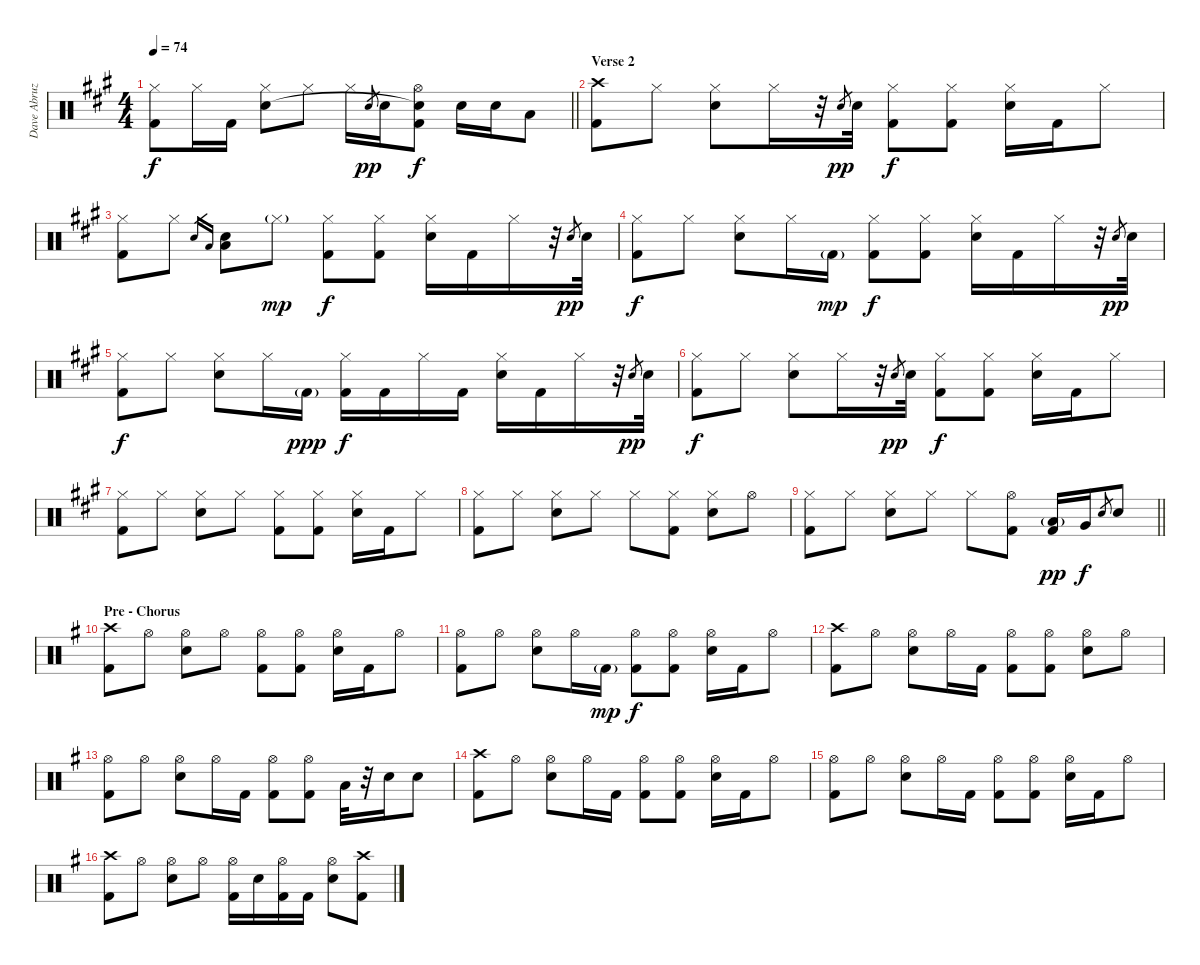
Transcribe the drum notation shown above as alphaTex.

\track ("Dave Abruzzese" "Dave Abruz") {instrument percussion}
\staff {score}
\articulation defaults
\ts (4 4)
\tempo 74
\clef neutral
\barLineRight lightlight
\ks a
("Hi-Hat (closed)" "Kick (hit) 2").8{dy f} "Hi-Hat (closed)".16 "Kick (hit) 2".16 ("Hi-Hat (closed)" "Electric Snare (hit)").8 "Hi-Hat (closed)".8 "Hi-Hat (closed)".16 "Electric Snare (hit)".8{gr dy pp} "Electric Snare (hit)".16 ("Hi-Hat (open)" "Snare (hit)"{t} "Kick (hit) 2").8{dy f} "Electric Snare (hit)".16 "Electric Snare (hit)".16 "Low Tom (hit)".8 |
\section ("" "Verse 2")
("Crash high (hit)" "Kick (hit) 2").8 "Hi-Hat (closed)".8 ("Hi-Hat (closed)" "Electric Snare (hit)").8 "Hi-Hat (closed)".16 r.32 "Electric Snare (hit)".8{gr dy pp} "Electric Snare (hit)".32 ("Hi-Hat (closed)" "Kick (hit) 2").8{dy f} ("Hi-Hat (closed)" "Kick (hit) 2").8 ("Hi-Hat (closed)" "Electric Snare (hit)").16 "Kick (hit) 2".16 "Hi-Hat (closed)".8 |
("Hi-Hat (closed)" "Kick (hit) 2").8 "Hi-Hat (closed)".8 "Electric Snare (hit)".16{gr} "Low Floor Tom (hit)".16{gr} ("Electric Snare (hit)" "Low Floor Tom (hit)").8 "Hi-Hat (closed)"{g}.8{dy mp} ("Hi-Hat (closed)" "Kick (hit) 2").8{dy f} ("Hi-Hat (closed)" "Kick (hit) 2").8 ("Hi-Hat (closed)" "Electric Snare (hit)").16 "Kick (hit) 2".16 "Hi-Hat (closed)".16 r.32 "Electric Snare (hit)".8{gr dy pp} "Electric Snare (hit)".32 |
("Hi-Hat (closed)" "Kick (hit) 2").8{dy f} "Hi-Hat (closed)".8 ("Hi-Hat (closed)" "Electric Snare (hit)").8 "Hi-Hat (closed)".16 "Kick (hit) 2"{g}.16{dy mp} ("Hi-Hat (closed)" "Kick (hit) 2").8{dy f} ("Hi-Hat (closed)" "Kick (hit) 2").8 ("Hi-Hat (closed)" "Electric Snare (hit)").16 "Kick (hit) 2".16 "Hi-Hat (closed)".16 r.32 "Electric Snare (hit)".8{gr dy pp} "Electric Snare (hit)".32 |
("Hi-Hat (closed)" "Kick (hit) 2").8{dy f} "Hi-Hat (closed)".8 ("Hi-Hat (closed)" "Electric Snare (hit)").8 "Hi-Hat (closed)".16 "Kick (hit) 2"{g}.16{dy ppp} ("Hi-Hat (closed)" "Kick (hit) 2").16{dy f} "Kick (hit) 2".16 "Hi-Hat (closed)".16 "Kick (hit) 2".16 ("Hi-Hat (closed)" "Electric Snare (hit)").16 "Kick (hit) 2".16 "Hi-Hat (closed)".16 r.32 "Electric Snare (hit)".8{gr dy pp} "Electric Snare (hit)".32 |
("Hi-Hat (closed)" "Kick (hit) 2").8{dy f} "Hi-Hat (closed)".8 ("Hi-Hat (closed)" "Electric Snare (hit)").8 "Hi-Hat (closed)".16 r.32 "Electric Snare (hit)".8{gr dy pp} "Electric Snare (hit)".32 ("Hi-Hat (closed)" "Kick (hit) 2").8{dy f} ("Hi-Hat (closed)" "Kick (hit) 2").8 ("Hi-Hat (closed)" "Electric Snare (hit)").16 "Kick (hit) 2".16 "Hi-Hat (closed)".8 |
("Hi-Hat (closed)" "Kick (hit) 2").8 "Hi-Hat (closed)".8 ("Hi-Hat (closed)" "Electric Snare (hit)").8 "Hi-Hat (closed)".8 ("Hi-Hat (closed)" "Kick (hit) 2").8 ("Hi-Hat (closed)" "Kick (hit) 2").8 ("Hi-Hat (closed)" "Electric Snare (hit)").16 "Kick (hit) 2".16 "Hi-Hat (closed)".8 |
("Hi-Hat (closed)" "Kick (hit) 2").8 "Hi-Hat (closed)".8 ("Hi-Hat (closed)" "Electric Snare (hit)").8 "Hi-Hat (closed)".8 "Hi-Hat (closed)".8 ("Hi-Hat (closed)" "Kick (hit) 2").8 ("Hi-Hat (closed)" "Electric Snare (hit)").8 "Hi-Hat (open)".8 |
\barLineRight lightlight
("Hi-Hat (closed)" "Kick (hit) 2").8 "Hi-Hat (closed)".8 ("Hi-Hat (closed)" "Electric Snare (hit)").8 "Hi-Hat (closed)".8 "Hi-Hat (closed)".8 ("Hi-Hat (open)" "Kick (hit) 2").8 ("Low Floor Tom (hit)"{g} "Kick (hit) 2").16{dy pp} "Very Low Tom (hit)".16{dy f} "Electric Snare (hit)".8{gr} "Electric Snare (hit)".8 |
\section ("" "Pre - Chorus")
\ks eminor
("Crash high (hit)" "Kick (hit) 2").8 "Hi-Hat (open)".8 ("Hi-Hat (open)" "Electric Snare (hit)").8 "Hi-Hat (open)".8 ("Hi-Hat (open)" "Kick (hit) 2").8 ("Hi-Hat (open)" "Kick (hit) 2").8 ("Hi-Hat (open)" "Electric Snare (hit)").16 "Kick (hit) 2".16 "Hi-Hat (open)".8 |
("Hi-Hat (open)" "Kick (hit) 2").8 "Hi-Hat (open)".8 ("Hi-Hat (open)" "Electric Snare (hit)").8 "Hi-Hat (open)".16 "Kick (hit) 2"{g}.16{dy mp} ("Hi-Hat (open)" "Kick (hit) 2").8{dy f} ("Hi-Hat (open)" "Kick (hit) 2").8 ("Hi-Hat (open)" "Electric Snare (hit)").16 "Kick (hit) 2".16 "Hi-Hat (open)".8 |
("Crash high (hit)" "Kick (hit) 2").8 "Hi-Hat (open)".8 ("Hi-Hat (open)" "Electric Snare (hit)").8 "Hi-Hat (open)".16 "Kick (hit) 2".16 ("Hi-Hat (open)" "Kick (hit) 2").8 ("Hi-Hat (open)" "Kick (hit) 2").8 ("Hi-Hat (open)" "Electric Snare (hit)").8 "Hi-Hat (open)".8 |
("Hi-Hat (open)" "Kick (hit) 2").8 "Hi-Hat (open)".8 ("Hi-Hat (open)" "Electric Snare (hit)").8 "Hi-Hat (open)".16 "Kick (hit) 2".16 ("Hi-Hat (open)" "Kick (hit) 2").8 ("Hi-Hat (open)" "Kick (hit) 2").8 "Low Tom (hit)".32 r.32 "Electric Snare (hit)".16 "Electric Snare (hit)".8 |
("Crash high (hit)" "Kick (hit) 2").8 "Hi-Hat (open)".8 ("Hi-Hat (open)" "Electric Snare (hit)").8 "Hi-Hat (open)".16 "Kick (hit) 2".16 ("Hi-Hat (open)" "Kick (hit) 2").8 ("Hi-Hat (open)" "Kick (hit) 2").8 ("Hi-Hat (open)" "Electric Snare (hit)").16 "Kick (hit) 2".16 "Hi-Hat (open)".8 |
("Hi-Hat (open)" "Kick (hit) 2").8 "Hi-Hat (open)".8 ("Hi-Hat (open)" "Electric Snare (hit)").8 "Hi-Hat (open)".16 "Kick (hit) 2".16 ("Hi-Hat (open)" "Kick (hit) 2").8 ("Hi-Hat (open)" "Kick (hit) 2").8 ("Hi-Hat (open)" "Electric Snare (hit)").16 "Kick (hit) 2".16 "Hi-Hat (open)".8 |
("Crash high (hit)" "Kick (hit) 2").8 "Hi-Hat (open)".8 ("Hi-Hat (open)" "Electric Snare (hit)").8 "Hi-Hat (open)".8 ("Hi-Hat (open)" "Kick (hit) 2").16 "Electric Snare (hit)".16 ("Hi-Hat (open)" "Kick (hit) 2").16 "Kick (hit) 2".16 ("Hi-Hat (open)" "Electric Snare (hit)").8 ("Crash high (hit)" "Kick (hit) 2").8
